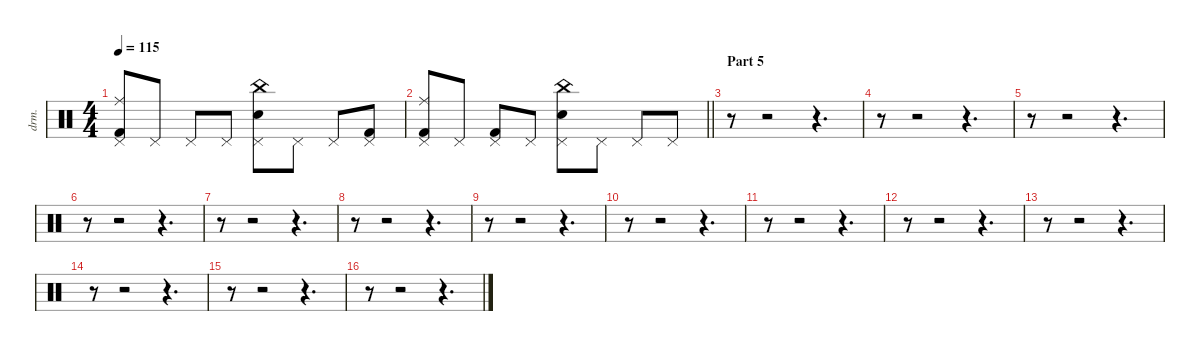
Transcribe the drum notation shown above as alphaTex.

\defaultSystemsLayout 4
\hideDynamics
\bracketExtendMode nobrackets
\otherSystemsTrackNameOrientation horizontal
\track ("Drums" "drm.") {instrument percussion}
\staff {score}
\articulation defaults
\ts (4 4)
\tempo 115
\clef neutral
\ks c
("Pedal Hi-Hat (hit)" "Ride (middle)" "Kick (hit) 2").8{dy f} "Pedal Hi-Hat (hit)".8 "Pedal Hi-Hat (hit)".8 "Pedal Hi-Hat (hit)".8 ("Pedal Hi-Hat (hit)" "Snare (hit) 2" "China (hit)").8 "Pedal Hi-Hat (hit)".8 "Pedal Hi-Hat (hit)".8 ("Pedal Hi-Hat (hit)" "Kick (hit) 2").8 |
\barLineRight lightlight
("Pedal Hi-Hat (hit)" "Ride (middle)" "Kick (hit) 2").8 "Pedal Hi-Hat (hit)".8 ("Pedal Hi-Hat (hit)" "Kick (hit) 2").8 "Pedal Hi-Hat (hit)".8 ("Pedal Hi-Hat (hit)" "Snare (hit) 2" "China (hit)").8 "Pedal Hi-Hat (hit)".8 "Pedal Hi-Hat (hit)".8 "Pedal Hi-Hat (hit)".8 |
\section ("" "Part 5")
r.8 r.2 r.4{d} |
r.8 r.2 r.4{d} |
r.8 r.2 r.4{d} |
r.8 r.2 r.4{d} |
r.8 r.2 r.4{d} |
r.8 r.2 r.4{d} |
r.8 r.2 r.4{d} |
r.8 r.2 r.4{d} |
r.8 r.2 r.4{d} |
r.8 r.2 r.4{d} |
r.8 r.2 r.4{d} |
r.8 r.2 r.4{d} |
r.8 r.2 r.4{d} |
r.8 r.2 r.4{d}
